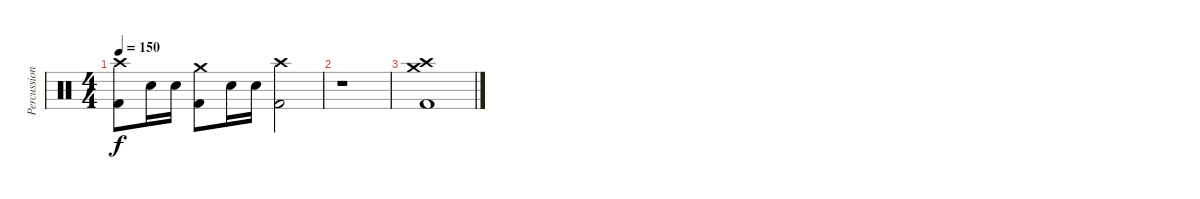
\track ("Percussion" "Percussion") {instrument percussion}
\staff {score}
\articulation defaults
\ts (4 4)
\tempo 150
\clef neutral
\ks c
("Crash high (hit)" "Kick (hit) 2").8{dy f} "Snare (hit) 2".16 "Snare (hit) 2".16 ("Crash medium (hit)" "Kick (hit) 2").8 "Snare (hit) 2".16 "Snare (hit) 2".16 ("Crash high (hit)" "Kick (hit) 2").2 |
r.1 |
("Crash medium (hit)" "Crash high (hit)" "Kick (hit) 2").1
